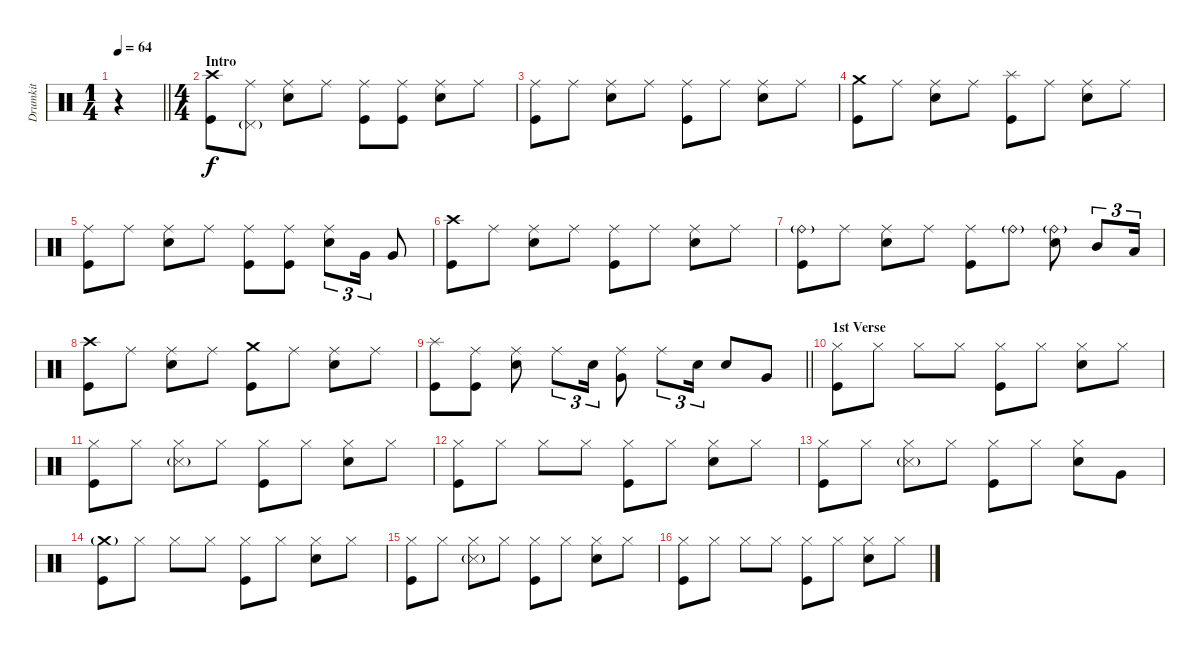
\track ("Drumkit" "Drumkit") {instrument percussion}
\staff {score}
\articulation defaults
\ts (1 4)
\tempo 64
\clef neutral
\barLineRight lightlight
\ks c
r.4{dy f} |
\ts (4 4)
\section ("" "Intro")
("Crash high (hit)" "Kick (hit)").8 ("Ride (middle)" "Pedal Hi-Hat (hit)"{g}).8 ("Ride (middle)" "Snare (hit) 2").8 "Ride (middle)".8 ("Ride (middle)" "Kick (hit)").8 ("Ride (middle)" "Kick (hit)").8 ("Ride (middle)" "Snare (hit) 2").8 "Ride (middle)".8 |
("Ride (middle)" "Kick (hit)").8 "Ride (middle)".8 ("Ride (middle)" "Snare (hit) 2").8 "Ride (middle)".8 ("Ride (middle)" "Kick (hit)").8 "Ride (middle)".8 ("Ride (middle)" "Snare (hit) 2").8 "Ride (middle)".8 |
("Crash medium (hit)" "Kick (hit)").8 "Ride (middle)".8 ("Ride (middle)" "Snare (hit) 2").8 "Ride (middle)".8 ("Splash (hit)" "Kick (hit)").8 "Ride (middle)".8 ("Ride (middle)" "Snare (hit) 2").8 "Ride (middle)".8 |
("Ride (middle)" "Kick (hit)").8 "Ride (middle)".8 ("Ride (middle)" "Snare (hit) 2").8 "Ride (middle)".8 ("Ride (middle)" "Kick (hit)").8 ("Ride (middle)" "Kick (hit)").8 ("Ride (middle)" "Snare (hit) 2").8{tu (3 2)} "Very Low Tom (hit)".16{tu (3 2)} "Very Low Tom (hit)".8 |
("Crash high (hit)" "Kick (hit)").8 "Ride (middle)".8 ("Ride (middle)" "Snare (hit) 2").8 "Ride (middle)".8 ("Ride (middle)" "Kick (hit)").8 "Ride (middle)".8 ("Ride (middle)" "Snare (hit) 2").8 "Ride (middle)".8 |
("Ride (bell)"{g} "Kick (hit)").8 "Ride (middle)".8 ("Ride (middle)" "Snare (hit) 2").8 "Ride (middle)".8 ("Ride (middle)" "Kick (hit)").8 "Ride (bell)"{g}.8 ("Ride (bell)"{g} "Snare (hit) 2").8 "Mid Tom (hit)".8{tu (3 2)} "Low Tom (hit)".16{tu (3 2)} |
("Crash high (hit)" "Kick (hit)").8 "Ride (middle)".8 ("Ride (middle)" "Snare (hit) 2").8 "Ride (middle)".8 ("Crash medium (hit)" "Kick (hit)").8 "Ride (middle)".8 ("Ride (middle)" "Snare (hit) 2").8 "Ride (middle)".8 |
\barLineRight lightlight
("Splash (hit)" "Kick (hit)").8 ("Ride (middle)" "Kick (hit)").8 ("Ride (middle)" "Snare (hit) 2").8 "Ride (middle)".8{tu (3 2)} "Snare (hit) 2".16{tu (3 2)} ("Ride (middle)" "Very Low Tom (hit)").8 "Ride (middle)".8{tu (3 2)} "Snare (hit) 2".16{tu (3 2)} "Snare (hit) 2".8 "Very Low Tom (hit)".8 |
\section ("" "1st Verse")
("Hi-Hat (closed)" "Kick (hit)").8 "Hi-Hat (closed)".8 "Hi-Hat (closed)".8 "Hi-Hat (closed)".8 ("Hi-Hat (closed)" "Kick (hit)").8 "Hi-Hat (closed)".8 ("Hi-Hat (closed)" "Snare (hit) 2").8 "Hi-Hat (closed)".8 |
("Hi-Hat (closed)" "Kick (hit)").8 "Hi-Hat (closed)".8 ("Hi-Hat (closed)" "Snare (side stick) 3"{g}).8 "Hi-Hat (closed)".8 ("Hi-Hat (closed)" "Kick (hit)").8 "Hi-Hat (closed)".8 ("Hi-Hat (closed)" "Snare (hit) 2").8 "Hi-Hat (closed)".8 |
("Hi-Hat (closed)" "Kick (hit)").8 "Hi-Hat (closed)".8 "Hi-Hat (closed)".8 "Hi-Hat (closed)".8 ("Hi-Hat (closed)" "Kick (hit)").8 "Hi-Hat (closed)".8 ("Hi-Hat (closed)" "Snare (hit) 2").8 "Hi-Hat (closed)".8 |
("Hi-Hat (closed)" "Kick (hit)").8 "Hi-Hat (closed)".8 ("Hi-Hat (closed)" "Snare (side stick) 3"{g}).8 "Hi-Hat (closed)".8 ("Hi-Hat (closed)" "Kick (hit)").8 "Hi-Hat (closed)".8 ("Hi-Hat (closed)" "Snare (hit) 2").8 "Very Low Tom (hit)".8 |
("Crash medium (hit)"{g} "Kick (hit)").8 "Hi-Hat (closed)".8 "Hi-Hat (closed)".8 "Hi-Hat (closed)".8 ("Hi-Hat (closed)" "Kick (hit)").8 "Hi-Hat (closed)".8 ("Hi-Hat (closed)" "Snare (hit) 2").8 "Hi-Hat (closed)".8 |
("Hi-Hat (closed)" "Kick (hit)").8 "Hi-Hat (closed)".8 ("Hi-Hat (closed)" "Snare (side stick) 3"{g}).8 "Hi-Hat (closed)".8 ("Hi-Hat (closed)" "Kick (hit)").8 "Hi-Hat (closed)".8 ("Hi-Hat (closed)" "Snare (hit) 2").8 "Hi-Hat (closed)".8 |
("Hi-Hat (closed)" "Kick (hit)").8 "Hi-Hat (closed)".8 "Hi-Hat (closed)".8 "Hi-Hat (closed)".8 ("Hi-Hat (closed)" "Kick (hit)").8 "Hi-Hat (closed)".8 ("Hi-Hat (closed)" "Snare (hit) 2").8 "Hi-Hat (closed)".8
